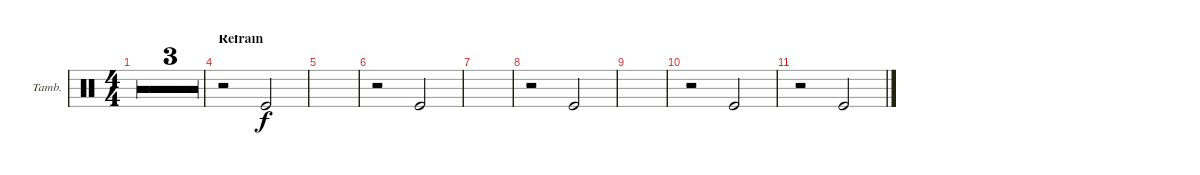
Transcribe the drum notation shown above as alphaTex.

\bracketExtendMode groupsimilarinstruments
\firstSystemTrackNameOrientation horizontal
\otherSystemsTrackNameOrientation horizontal
\track ("Ray Cooper" "Tamb.") {multiBarRest instrument percussion}
\staff {score}
\articulation defaults
\ts (4 4)
\tempo 116
\clef neutral
\ks c
|
|
|
\section ("" "Refrain")
r.2 "Kick (hit)".2 |
|
r.2 "Kick (hit)".2 |
|
r.2 "Kick (hit)".2 |
|
r.2 "Kick (hit)".2 |
r.2 "Kick (hit)".2
